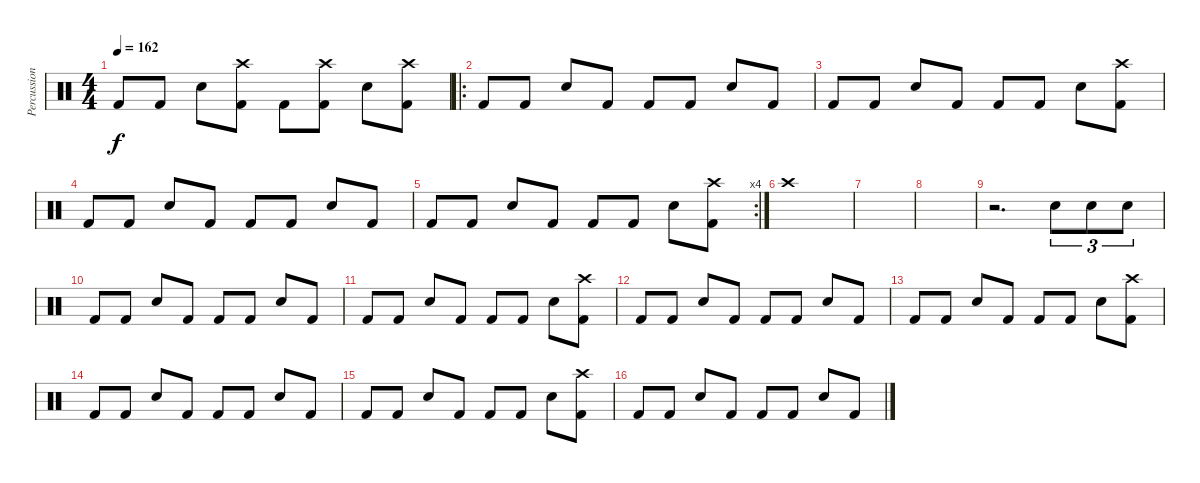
\track ("Percussion" "Percussion") {instrument percussion}
\staff {score}
\articulation defaults
\ts (4 4)
\tempo 162
\clef neutral
\ks c "Kick (hit) 2".8{dy f} "Kick (hit) 2".8 "Snare (hit) 2".8
("Crash high (hit)" "Kick (hit) 2").8 "Kick (hit) 2".8 ("Crash high (hit)" "Kick (hit) 2").8 "Snare (hit) 2".8 ("Crash high (hit)" "Kick (hit) 2").8 |
\ro "Kick (hit) 2".8 "Kick (hit) 2".8 "Snare (hit) 2".8 "Kick (hit) 2".8 "Kick (hit) 2".8 "Kick (hit) 2".8 "Snare (hit) 2".8 "Kick (hit) 2".8
|
"Kick (hit) 2".8 "Kick (hit) 2".8 "Snare (hit) 2".8 "Kick (hit) 2".8 "Kick (hit) 2".8 "Kick (hit) 2".8 "Snare (hit) 2".8 ("Crash high (hit)" "Kick (hit) 2").8 |
"Kick (hit) 2".8 "Kick (hit) 2".8 "Snare (hit) 2".8 "Kick (hit) 2".8 "Kick (hit) 2".8 "Kick (hit) 2".8 "Snare (hit) 2".8 "Kick (hit) 2".8 |
\rc 4 "Kick (hit) 2".8 "Kick (hit) 2".8 "Snare (hit) 2".8 "Kick (hit) 2".8 "Kick (hit) 2".8 "Kick (hit) 2".8 "Snare (hit) 2".8
("Crash high (hit)" "Kick (hit) 2").8 |
"Crash high (hit)".1 |
|
|
r.2{d} "Snare (hit) 2".8{tu (3 2)} "Snare (hit) 2".8{tu (3 2)} "Snare (hit) 2".8{tu (3 2)} |
"Kick (hit) 2".8 "Kick (hit) 2".8 "Snare (hit) 2".8 "Kick (hit) 2".8 "Kick (hit) 2".8 "Kick (hit) 2".8 "Snare (hit) 2".8 "Kick (hit) 2".8 |
"Kick (hit) 2".8 "Kick (hit) 2".8 "Snare (hit) 2".8 "Kick (hit) 2".8 "Kick (hit) 2".8 "Kick (hit) 2".8 "Snare (hit) 2".8 ("Crash high (hit)" "Kick (hit) 2").8 |
"Kick (hit) 2".8 "Kick (hit) 2".8 "Snare (hit) 2".8 "Kick (hit) 2".8 "Kick (hit) 2".8 "Kick (hit) 2".8 "Snare (hit) 2".8 "Kick (hit) 2".8 |
"Kick (hit) 2".8 "Kick (hit) 2".8 "Snare (hit) 2".8 "Kick (hit) 2".8 "Kick (hit) 2".8 "Kick (hit) 2".8 "Snare (hit) 2".8 ("Crash high (hit)" "Kick (hit) 2").8 |
"Kick (hit) 2".8 "Kick (hit) 2".8 "Snare (hit) 2".8 "Kick (hit) 2".8 "Kick (hit) 2".8 "Kick (hit) 2".8 "Snare (hit) 2".8 "Kick (hit) 2".8 |
"Kick (hit) 2".8 "Kick (hit) 2".8 "Snare (hit) 2".8 "Kick (hit) 2".8 "Kick (hit) 2".8 "Kick (hit) 2".8 "Snare (hit) 2".8 ("Crash high (hit)" "Kick (hit) 2").8 |
"Kick (hit) 2".8 "Kick (hit) 2".8 "Snare (hit) 2".8 "Kick (hit) 2".8 "Kick (hit) 2".8 "Kick (hit) 2".8 "Snare (hit) 2".8 "Kick (hit) 2".8
